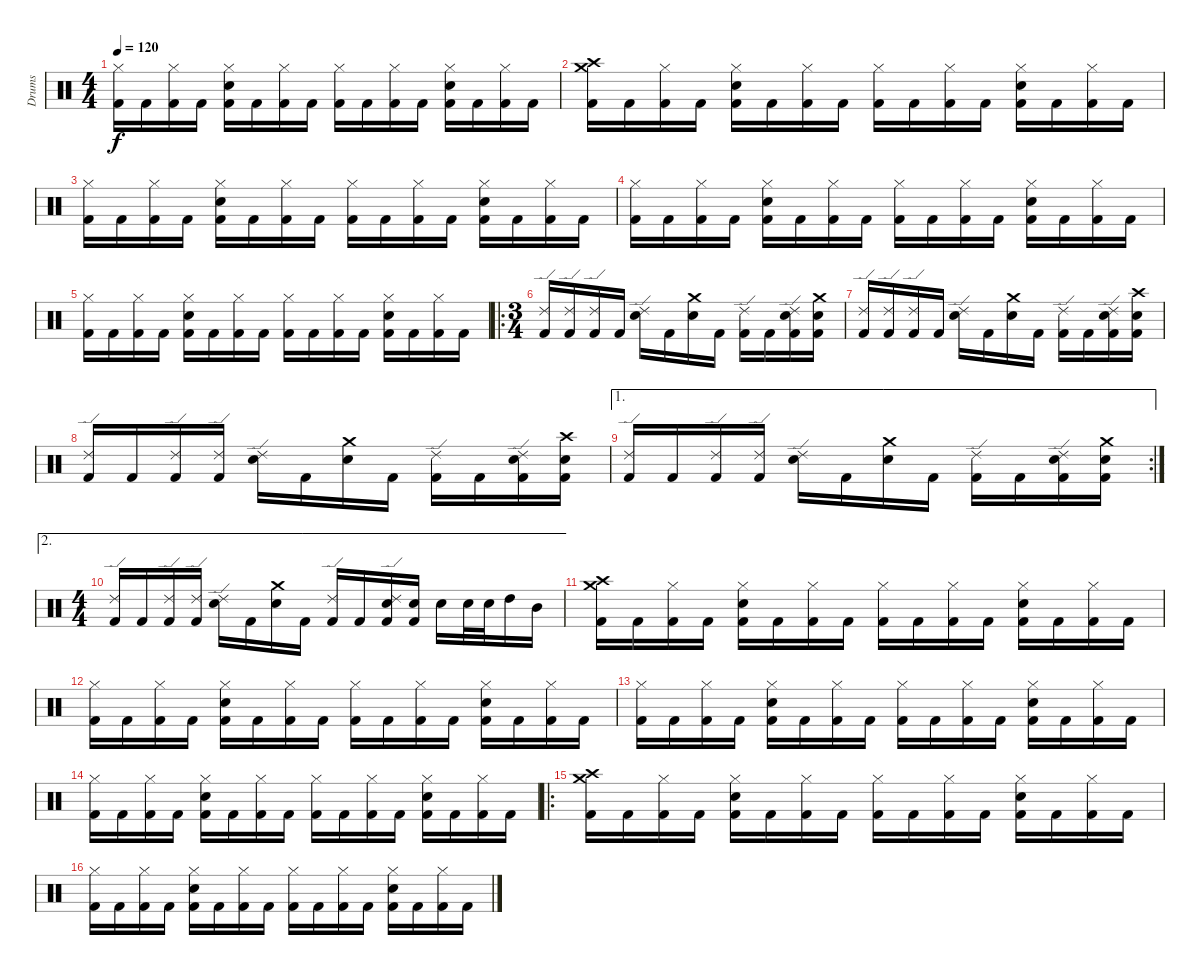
\track ("Drums" "Drums") {instrument percussion}
\staff {score}
\articulation defaults
\ts (4 4)
\tempo 120
\clef neutral
\ks c
("Hi-Hat (closed)" "Kick (hit) 2").16{dy f} "Kick (hit) 2".16 ("Hi-Hat (closed)" "Kick (hit) 2").16 "Kick (hit) 2".16 ("Hi-Hat (closed)" "Snare (hit) 2" "Kick (hit) 2").16 "Kick (hit) 2".16 ("Hi-Hat (closed)" "Kick (hit) 2").16 "Kick (hit) 2".16 ("Hi-Hat (closed)" "Kick (hit) 2").16 "Kick (hit) 2".16 ("Hi-Hat (closed)" "Kick (hit) 2").16 "Kick (hit) 2".16 ("Hi-Hat (closed)" "Snare (hit) 2" "Kick (hit) 2").16 "Kick (hit) 2".16 ("Hi-Hat (closed)" "Kick (hit) 2").16 "Kick (hit) 2".16 |
("Crash high (hit)" "Crash medium (hit)" "Kick (hit) 2").16 "Kick (hit) 2".16 ("Hi-Hat (closed)" "Kick (hit) 2").16 "Kick (hit) 2".16 ("Hi-Hat (closed)" "Snare (hit) 2" "Kick (hit) 2").16 "Kick (hit) 2".16 ("Hi-Hat (closed)" "Kick (hit) 2").16 "Kick (hit) 2".16 ("Hi-Hat (closed)" "Kick (hit) 2").16 "Kick (hit) 2".16 ("Hi-Hat (closed)" "Kick (hit) 2").16 "Kick (hit) 2".16 ("Hi-Hat (closed)" "Snare (hit) 2" "Kick (hit) 2").16 "Kick (hit) 2".16 ("Hi-Hat (closed)" "Kick (hit) 2").16 "Kick (hit) 2".16 |
("Hi-Hat (closed)" "Kick (hit) 2").16 "Kick (hit) 2".16 ("Hi-Hat (closed)" "Kick (hit) 2").16 "Kick (hit) 2".16 ("Hi-Hat (closed)" "Snare (hit) 2" "Kick (hit) 2").16 "Kick (hit) 2".16 ("Hi-Hat (closed)" "Kick (hit) 2").16 "Kick (hit) 2".16 ("Hi-Hat (closed)" "Kick (hit) 2").16 "Kick (hit) 2".16 ("Hi-Hat (closed)" "Kick (hit) 2").16 "Kick (hit) 2".16 ("Hi-Hat (closed)" "Snare (hit) 2" "Kick (hit) 2").16 "Kick (hit) 2".16 ("Hi-Hat (closed)" "Kick (hit) 2").16 "Kick (hit) 2".16 |
("Hi-Hat (closed)" "Kick (hit) 2").16 "Kick (hit) 2".16 ("Hi-Hat (closed)" "Kick (hit) 2").16 "Kick (hit) 2".16 ("Hi-Hat (closed)" "Snare (hit) 2" "Kick (hit) 2").16 "Kick (hit) 2".16 ("Hi-Hat (closed)" "Kick (hit) 2").16 "Kick (hit) 2".16 ("Hi-Hat (closed)" "Kick (hit) 2").16 "Kick (hit) 2".16 ("Hi-Hat (closed)" "Kick (hit) 2").16 "Kick (hit) 2".16 ("Hi-Hat (closed)" "Snare (hit) 2" "Kick (hit) 2").16 "Kick (hit) 2".16 ("Hi-Hat (closed)" "Kick (hit) 2").16 "Kick (hit) 2".16 |
("Hi-Hat (closed)" "Kick (hit) 2").16 "Kick (hit) 2".16 ("Hi-Hat (closed)" "Kick (hit) 2").16 "Kick (hit) 2".16 ("Hi-Hat (closed)" "Snare (hit) 2" "Kick (hit) 2").16 "Kick (hit) 2".16 ("Hi-Hat (closed)" "Kick (hit) 2").16 "Kick (hit) 2".16 ("Hi-Hat (closed)" "Kick (hit) 2").16 "Kick (hit) 2".16 ("Hi-Hat (closed)" "Kick (hit) 2").16 "Kick (hit) 2".16 ("Hi-Hat (closed)" "Snare (hit) 2" "Kick (hit) 2").16 "Kick (hit) 2".16 ("Hi-Hat (closed)" "Kick (hit) 2").16 "Kick (hit) 2".16 |
\ro
\ts (3 4)
("Ride (edge) 2" "Kick (hit) 2").16 ("Ride (edge) 2" "Kick (hit) 2").16 ("Ride (edge) 2" "Kick (hit) 2").16 "Kick (hit) 2".16 ("Ride (edge) 2" "Snare (hit) 2").16 "Kick (hit) 2".16 ("Crash medium (hit)" "Snare (hit) 2").16 "Kick (hit) 2".16 ("Ride (edge) 2" "Kick (hit) 2").16 "Kick (hit) 2".16 ("Ride (edge) 2" "Snare (hit) 2" "Kick (hit) 2").16 ("Crash medium (hit)" "Snare (hit) 2" "Kick (hit) 2").16 |
("Ride (edge) 2" "Kick (hit) 2").16 ("Ride (edge) 2" "Kick (hit) 2").16 ("Ride (edge) 2" "Kick (hit) 2").16 "Kick (hit) 2".16 ("Ride (edge) 2" "Snare (hit) 2").16 "Kick (hit) 2".16 ("Crash medium (hit)" "Snare (hit) 2").16 "Kick (hit) 2".16 ("Ride (edge) 2" "Kick (hit) 2").16 "Kick (hit) 2".16 ("Ride (edge) 2" "Snare (hit) 2" "Kick (hit) 2").16 ("Crash high (hit)" "Snare (hit) 2" "Kick (hit) 2").16 |
("Ride (edge) 2" "Kick (hit) 2").16 "Kick (hit) 2".16 ("Ride (edge) 2" "Kick (hit) 2").16 ("Ride (edge) 2" "Kick (hit) 2").16 ("Ride (edge) 2" "Snare (hit) 2").16 "Kick (hit) 2".16 ("Crash medium (hit)" "Snare (hit) 2").16 "Kick (hit) 2".16 ("Ride (edge) 2" "Kick (hit) 2").16 "Kick (hit) 2".16 ("Ride (edge) 2" "Snare (hit) 2" "Kick (hit) 2").16 ("Crash high (hit)" "Snare (hit) 2" "Kick (hit) 2").16 |
\ae 1
\rc 2
("Ride (edge) 2" "Kick (hit) 2").16 "Kick (hit) 2".16 ("Ride (edge) 2" "Kick (hit) 2").16 ("Ride (edge) 2" "Kick (hit) 2").16 ("Ride (edge) 2" "Snare (hit) 2").16 "Kick (hit) 2".16 ("Crash medium (hit)" "Snare (hit) 2").16 "Kick (hit) 2".16 ("Ride (edge) 2" "Kick (hit) 2").16 "Kick (hit) 2".16 ("Ride (edge) 2" "Snare (hit) 2" "Kick (hit) 2").16 ("Crash medium (hit)" "Snare (hit) 2" "Kick (hit) 2").16 |
\ae 2
\ts (4 4)
("Ride (edge) 2" "Kick (hit) 2").16 "Kick (hit) 2".16 ("Ride (edge) 2" "Kick (hit) 2").16 ("Ride (edge) 2" "Kick (hit) 2").16 ("Ride (edge) 2" "Snare (hit) 2").16 "Kick (hit) 2".16 ("Crash medium (hit)" "Snare (hit) 2").16 "Kick (hit) 2".16 ("Ride (edge) 2" "Kick (hit) 2").16 "Kick (hit) 2".16 ("Ride (edge) 2" "Snare (hit) 2" "Kick (hit) 2").16 ("Snare (hit) 2" "Kick (hit) 2").16 "Snare (hit) 2".16 "Snare (hit) 2".32 "Snare (hit) 2".32 "High Tom (hit)".16 "Mid Tom (hit)".16 |
("Crash high (hit)" "Crash medium (hit)" "Kick (hit) 2").16 "Kick (hit) 2".16 ("Hi-Hat (closed)" "Kick (hit) 2").16 "Kick (hit) 2".16 ("Hi-Hat (closed)" "Snare (hit) 2" "Kick (hit) 2").16 "Kick (hit) 2".16 ("Hi-Hat (closed)" "Kick (hit) 2").16 "Kick (hit) 2".16 ("Hi-Hat (closed)" "Kick (hit) 2").16 "Kick (hit) 2".16 ("Hi-Hat (closed)" "Kick (hit) 2").16 "Kick (hit) 2".16 ("Hi-Hat (closed)" "Snare (hit) 2" "Kick (hit) 2").16 "Kick (hit) 2".16 ("Hi-Hat (closed)" "Kick (hit) 2").16 "Kick (hit) 2".16 |
("Hi-Hat (closed)" "Kick (hit) 2").16 "Kick (hit) 2".16 ("Hi-Hat (closed)" "Kick (hit) 2").16 "Kick (hit) 2".16 ("Hi-Hat (closed)" "Snare (hit) 2" "Kick (hit) 2").16 "Kick (hit) 2".16 ("Hi-Hat (closed)" "Kick (hit) 2").16 "Kick (hit) 2".16 ("Hi-Hat (closed)" "Kick (hit) 2").16 "Kick (hit) 2".16 ("Hi-Hat (closed)" "Kick (hit) 2").16 "Kick (hit) 2".16 ("Hi-Hat (closed)" "Snare (hit) 2" "Kick (hit) 2").16 "Kick (hit) 2".16 ("Hi-Hat (closed)" "Kick (hit) 2").16 "Kick (hit) 2".16 |
("Hi-Hat (closed)" "Kick (hit) 2").16 "Kick (hit) 2".16 ("Hi-Hat (closed)" "Kick (hit) 2").16 "Kick (hit) 2".16 ("Hi-Hat (closed)" "Snare (hit) 2" "Kick (hit) 2").16 "Kick (hit) 2".16 ("Hi-Hat (closed)" "Kick (hit) 2").16 "Kick (hit) 2".16 ("Hi-Hat (closed)" "Kick (hit) 2").16 "Kick (hit) 2".16 ("Hi-Hat (closed)" "Kick (hit) 2").16 "Kick (hit) 2".16 ("Hi-Hat (closed)" "Snare (hit) 2" "Kick (hit) 2").16 "Kick (hit) 2".16 ("Hi-Hat (closed)" "Kick (hit) 2").16 "Kick (hit) 2".16 |
("Hi-Hat (closed)" "Kick (hit) 2").16 "Kick (hit) 2".16 ("Hi-Hat (closed)" "Kick (hit) 2").16 "Kick (hit) 2".16 ("Hi-Hat (closed)" "Snare (hit) 2" "Kick (hit) 2").16 "Kick (hit) 2".16 ("Hi-Hat (closed)" "Kick (hit) 2").16 "Kick (hit) 2".16 ("Hi-Hat (closed)" "Kick (hit) 2").16 "Kick (hit) 2".16 ("Hi-Hat (closed)" "Kick (hit) 2").16 "Kick (hit) 2".16 ("Hi-Hat (closed)" "Snare (hit) 2" "Kick (hit) 2").16 "Kick (hit) 2".16 ("Hi-Hat (closed)" "Kick (hit) 2").16 "Kick (hit) 2".16 |
\ro
("Crash high (hit)" "Crash medium (hit)" "Kick (hit) 2").16 "Kick (hit) 2".16 ("Hi-Hat (closed)" "Kick (hit) 2").16 "Kick (hit) 2".16 ("Hi-Hat (closed)" "Snare (hit) 2" "Kick (hit) 2").16 "Kick (hit) 2".16 ("Hi-Hat (closed)" "Kick (hit) 2").16 "Kick (hit) 2".16 ("Hi-Hat (closed)" "Kick (hit) 2").16 "Kick (hit) 2".16 ("Hi-Hat (closed)" "Kick (hit) 2").16 "Kick (hit) 2".16 ("Hi-Hat (closed)" "Snare (hit) 2" "Kick (hit) 2").16 "Kick (hit) 2".16 ("Hi-Hat (closed)" "Kick (hit) 2").16 "Kick (hit) 2".16 |
("Hi-Hat (closed)" "Kick (hit) 2").16 "Kick (hit) 2".16 ("Hi-Hat (closed)" "Kick (hit) 2").16 "Kick (hit) 2".16 ("Hi-Hat (closed)" "Snare (hit) 2" "Kick (hit) 2").16 "Kick (hit) 2".16 ("Hi-Hat (closed)" "Kick (hit) 2").16 "Kick (hit) 2".16 ("Hi-Hat (closed)" "Kick (hit) 2").16 "Kick (hit) 2".16 ("Hi-Hat (closed)" "Kick (hit) 2").16 "Kick (hit) 2".16 ("Hi-Hat (closed)" "Snare (hit) 2" "Kick (hit) 2").16 "Kick (hit) 2".16 ("Hi-Hat (closed)" "Kick (hit) 2").16 "Kick (hit) 2".16
